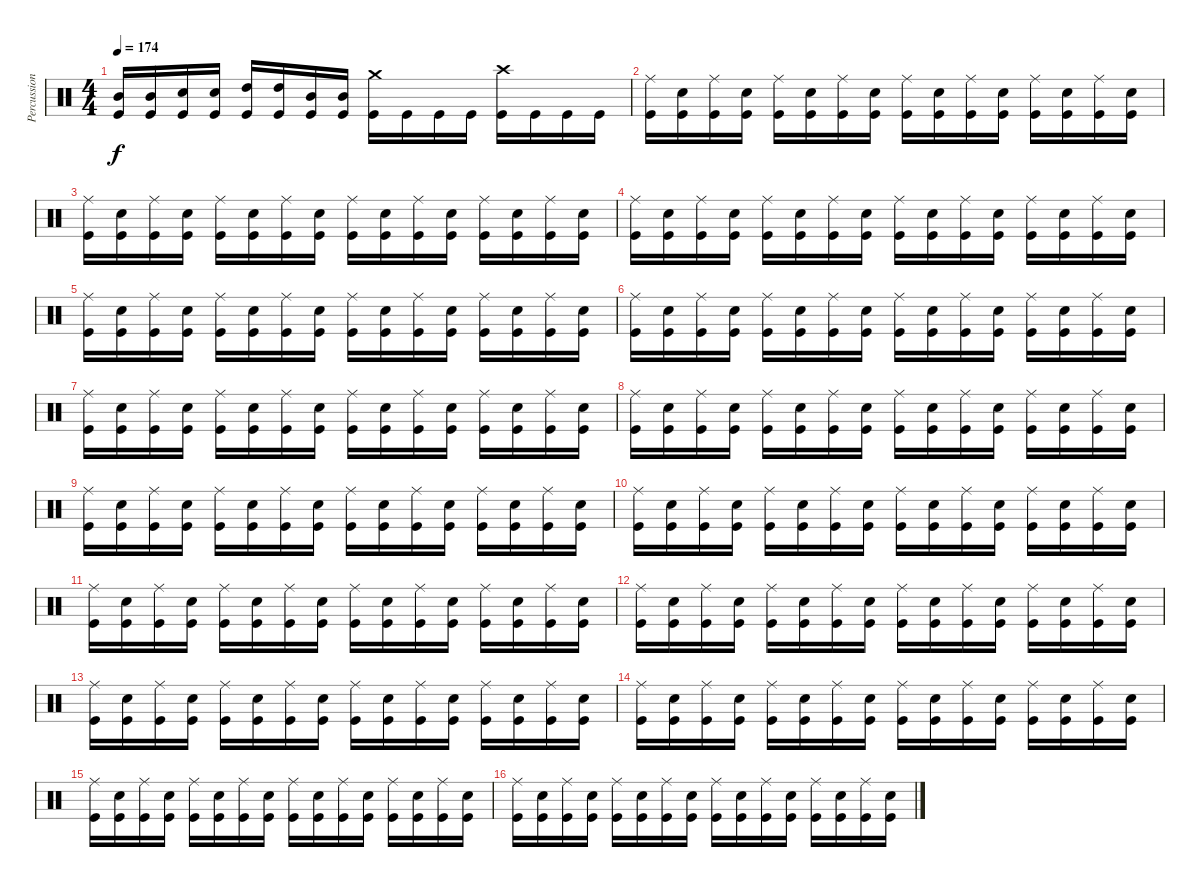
\track ("Percussion" "Percussion") {instrument percussion}
\staff {score}
\articulation defaults
\ts (4 4)
\tempo 174
\clef neutral
\ks c
("Mid Tom (hit)" "Kick (hit)").16{dy f} ("Mid Tom (hit)" "Kick (hit)").16 ("Electric Snare (hit)" "Kick (hit)").16 ("Electric Snare (hit)" "Kick (hit)").16 ("High Tom (hit)" "Kick (hit)").16 ("High Tom (hit)" "Kick (hit)").16 ("Mid Tom (hit)" "Kick (hit)").16 ("Mid Tom (hit)" "Kick (hit)").16 ("Crash medium (hit)" "Kick (hit)").16 "Kick (hit)".16 "Kick (hit)".16 "Kick (hit)".16 ("Crash high (hit)" "Kick (hit)").16 "Kick (hit)".16 "Kick (hit)".16 "Kick (hit)".16 |
\section ("" "")
("Ride (middle)" "Kick (hit)").16 ("Electric Snare (hit)" "Kick (hit)").16 ("Ride (middle)" "Kick (hit)").16 ("Electric Snare (hit)" "Kick (hit)").16 ("Ride (middle)" "Kick (hit)").16 ("Electric Snare (hit)" "Kick (hit)").16 ("Ride (middle)" "Kick (hit)").16 ("Electric Snare (hit)" "Kick (hit)").16 ("Ride (middle)" "Kick (hit)").16 ("Electric Snare (hit)" "Kick (hit)").16 ("Ride (middle)" "Kick (hit)").16 ("Electric Snare (hit)" "Kick (hit)").16 ("Ride (middle)" "Kick (hit)").16 ("Electric Snare (hit)" "Kick (hit)").16 ("Ride (middle)" "Kick (hit)").16 ("Electric Snare (hit)" "Kick (hit)").16 |
("Ride (middle)" "Kick (hit)").16 ("Electric Snare (hit)" "Kick (hit)").16 ("Ride (middle)" "Kick (hit)").16 ("Electric Snare (hit)" "Kick (hit)").16 ("Ride (middle)" "Kick (hit)").16 ("Electric Snare (hit)" "Kick (hit)").16 ("Ride (middle)" "Kick (hit)").16 ("Electric Snare (hit)" "Kick (hit)").16 ("Ride (middle)" "Kick (hit)").16 ("Electric Snare (hit)" "Kick (hit)").16 ("Ride (middle)" "Kick (hit)").16 ("Electric Snare (hit)" "Kick (hit)").16 ("Ride (middle)" "Kick (hit)").16 ("Electric Snare (hit)" "Kick (hit)").16 ("Ride (middle)" "Kick (hit)").16 ("Electric Snare (hit)" "Kick (hit)").16 |
("Ride (middle)" "Kick (hit)").16 ("Electric Snare (hit)" "Kick (hit)").16 ("Ride (middle)" "Kick (hit)").16 ("Electric Snare (hit)" "Kick (hit)").16 ("Ride (middle)" "Kick (hit)").16 ("Electric Snare (hit)" "Kick (hit)").16 ("Ride (middle)" "Kick (hit)").16 ("Electric Snare (hit)" "Kick (hit)").16 ("Ride (middle)" "Kick (hit)").16 ("Electric Snare (hit)" "Kick (hit)").16 ("Ride (middle)" "Kick (hit)").16 ("Electric Snare (hit)" "Kick (hit)").16 ("Ride (middle)" "Kick (hit)").16 ("Electric Snare (hit)" "Kick (hit)").16 ("Ride (middle)" "Kick (hit)").16 ("Electric Snare (hit)" "Kick (hit)").16 |
("Ride (middle)" "Kick (hit)").16 ("Electric Snare (hit)" "Kick (hit)").16 ("Ride (middle)" "Kick (hit)").16 ("Electric Snare (hit)" "Kick (hit)").16 ("Ride (middle)" "Kick (hit)").16 ("Electric Snare (hit)" "Kick (hit)").16 ("Ride (middle)" "Kick (hit)").16 ("Electric Snare (hit)" "Kick (hit)").16 ("Ride (middle)" "Kick (hit)").16 ("Electric Snare (hit)" "Kick (hit)").16 ("Ride (middle)" "Kick (hit)").16 ("Electric Snare (hit)" "Kick (hit)").16 ("Ride (middle)" "Kick (hit)").16 ("Electric Snare (hit)" "Kick (hit)").16 ("Ride (middle)" "Kick (hit)").16 ("Electric Snare (hit)" "Kick (hit)").16 |
("Ride (middle)" "Kick (hit)").16 ("Electric Snare (hit)" "Kick (hit)").16 ("Ride (middle)" "Kick (hit)").16 ("Electric Snare (hit)" "Kick (hit)").16 ("Ride (middle)" "Kick (hit)").16 ("Electric Snare (hit)" "Kick (hit)").16 ("Ride (middle)" "Kick (hit)").16 ("Electric Snare (hit)" "Kick (hit)").16 ("Ride (middle)" "Kick (hit)").16 ("Electric Snare (hit)" "Kick (hit)").16 ("Ride (middle)" "Kick (hit)").16 ("Electric Snare (hit)" "Kick (hit)").16 ("Ride (middle)" "Kick (hit)").16 ("Electric Snare (hit)" "Kick (hit)").16 ("Ride (middle)" "Kick (hit)").16 ("Electric Snare (hit)" "Kick (hit)").16 |
("Ride (middle)" "Kick (hit)").16 ("Electric Snare (hit)" "Kick (hit)").16 ("Ride (middle)" "Kick (hit)").16 ("Electric Snare (hit)" "Kick (hit)").16 ("Ride (middle)" "Kick (hit)").16 ("Electric Snare (hit)" "Kick (hit)").16 ("Ride (middle)" "Kick (hit)").16 ("Electric Snare (hit)" "Kick (hit)").16 ("Ride (middle)" "Kick (hit)").16 ("Electric Snare (hit)" "Kick (hit)").16 ("Ride (middle)" "Kick (hit)").16 ("Electric Snare (hit)" "Kick (hit)").16 ("Ride (middle)" "Kick (hit)").16 ("Electric Snare (hit)" "Kick (hit)").16 ("Ride (middle)" "Kick (hit)").16 ("Electric Snare (hit)" "Kick (hit)").16 |
("Ride (middle)" "Kick (hit)").16 ("Electric Snare (hit)" "Kick (hit)").16 ("Ride (middle)" "Kick (hit)").16 ("Electric Snare (hit)" "Kick (hit)").16 ("Ride (middle)" "Kick (hit)").16 ("Electric Snare (hit)" "Kick (hit)").16 ("Ride (middle)" "Kick (hit)").16 ("Electric Snare (hit)" "Kick (hit)").16 ("Ride (middle)" "Kick (hit)").16 ("Electric Snare (hit)" "Kick (hit)").16 ("Ride (middle)" "Kick (hit)").16 ("Electric Snare (hit)" "Kick (hit)").16 ("Ride (middle)" "Kick (hit)").16 ("Electric Snare (hit)" "Kick (hit)").16 ("Ride (middle)" "Kick (hit)").16 ("Electric Snare (hit)" "Kick (hit)").16 |
("Ride (middle)" "Kick (hit)").16 ("Electric Snare (hit)" "Kick (hit)").16 ("Ride (middle)" "Kick (hit)").16 ("Electric Snare (hit)" "Kick (hit)").16 ("Ride (middle)" "Kick (hit)").16 ("Electric Snare (hit)" "Kick (hit)").16 ("Ride (middle)" "Kick (hit)").16 ("Electric Snare (hit)" "Kick (hit)").16 ("Ride (middle)" "Kick (hit)").16 ("Electric Snare (hit)" "Kick (hit)").16 ("Ride (middle)" "Kick (hit)").16 ("Electric Snare (hit)" "Kick (hit)").16 ("Ride (middle)" "Kick (hit)").16 ("Electric Snare (hit)" "Kick (hit)").16 ("Ride (middle)" "Kick (hit)").16 ("Electric Snare (hit)" "Kick (hit)").16 |
("Ride (middle)" "Kick (hit)").16 ("Electric Snare (hit)" "Kick (hit)").16 ("Ride (middle)" "Kick (hit)").16 ("Electric Snare (hit)" "Kick (hit)").16 ("Ride (middle)" "Kick (hit)").16 ("Electric Snare (hit)" "Kick (hit)").16 ("Ride (middle)" "Kick (hit)").16 ("Electric Snare (hit)" "Kick (hit)").16 ("Ride (middle)" "Kick (hit)").16 ("Electric Snare (hit)" "Kick (hit)").16 ("Ride (middle)" "Kick (hit)").16 ("Electric Snare (hit)" "Kick (hit)").16 ("Ride (middle)" "Kick (hit)").16 ("Electric Snare (hit)" "Kick (hit)").16 ("Ride (middle)" "Kick (hit)").16 ("Electric Snare (hit)" "Kick (hit)").16 |
("Ride (middle)" "Kick (hit)").16 ("Electric Snare (hit)" "Kick (hit)").16 ("Ride (middle)" "Kick (hit)").16 ("Electric Snare (hit)" "Kick (hit)").16 ("Ride (middle)" "Kick (hit)").16 ("Electric Snare (hit)" "Kick (hit)").16 ("Ride (middle)" "Kick (hit)").16 ("Electric Snare (hit)" "Kick (hit)").16 ("Ride (middle)" "Kick (hit)").16 ("Electric Snare (hit)" "Kick (hit)").16 ("Ride (middle)" "Kick (hit)").16 ("Electric Snare (hit)" "Kick (hit)").16 ("Ride (middle)" "Kick (hit)").16 ("Electric Snare (hit)" "Kick (hit)").16 ("Ride (middle)" "Kick (hit)").16 ("Electric Snare (hit)" "Kick (hit)").16 |
("Ride (middle)" "Kick (hit)").16 ("Electric Snare (hit)" "Kick (hit)").16 ("Ride (middle)" "Kick (hit)").16 ("Electric Snare (hit)" "Kick (hit)").16 ("Ride (middle)" "Kick (hit)").16 ("Electric Snare (hit)" "Kick (hit)").16 ("Ride (middle)" "Kick (hit)").16 ("Electric Snare (hit)" "Kick (hit)").16 ("Ride (middle)" "Kick (hit)").16 ("Electric Snare (hit)" "Kick (hit)").16 ("Ride (middle)" "Kick (hit)").16 ("Electric Snare (hit)" "Kick (hit)").16 ("Ride (middle)" "Kick (hit)").16 ("Electric Snare (hit)" "Kick (hit)").16 ("Ride (middle)" "Kick (hit)").16 ("Electric Snare (hit)" "Kick (hit)").16 |
("Ride (middle)" "Kick (hit)").16 ("Electric Snare (hit)" "Kick (hit)").16 ("Ride (middle)" "Kick (hit)").16 ("Electric Snare (hit)" "Kick (hit)").16 ("Ride (middle)" "Kick (hit)").16 ("Electric Snare (hit)" "Kick (hit)").16 ("Ride (middle)" "Kick (hit)").16 ("Electric Snare (hit)" "Kick (hit)").16 ("Ride (middle)" "Kick (hit)").16 ("Electric Snare (hit)" "Kick (hit)").16 ("Ride (middle)" "Kick (hit)").16 ("Electric Snare (hit)" "Kick (hit)").16 ("Ride (middle)" "Kick (hit)").16 ("Electric Snare (hit)" "Kick (hit)").16 ("Ride (middle)" "Kick (hit)").16 ("Electric Snare (hit)" "Kick (hit)").16 |
("Ride (middle)" "Kick (hit)").16 ("Electric Snare (hit)" "Kick (hit)").16 ("Ride (middle)" "Kick (hit)").16 ("Electric Snare (hit)" "Kick (hit)").16 ("Ride (middle)" "Kick (hit)").16 ("Electric Snare (hit)" "Kick (hit)").16 ("Ride (middle)" "Kick (hit)").16 ("Electric Snare (hit)" "Kick (hit)").16 ("Ride (middle)" "Kick (hit)").16 ("Electric Snare (hit)" "Kick (hit)").16 ("Ride (middle)" "Kick (hit)").16 ("Electric Snare (hit)" "Kick (hit)").16 ("Ride (middle)" "Kick (hit)").16 ("Electric Snare (hit)" "Kick (hit)").16 ("Ride (middle)" "Kick (hit)").16 ("Electric Snare (hit)" "Kick (hit)").16 |
("Ride (middle)" "Kick (hit)").16 ("Electric Snare (hit)" "Kick (hit)").16 ("Ride (middle)" "Kick (hit)").16 ("Electric Snare (hit)" "Kick (hit)").16 ("Ride (middle)" "Kick (hit)").16 ("Electric Snare (hit)" "Kick (hit)").16 ("Ride (middle)" "Kick (hit)").16 ("Electric Snare (hit)" "Kick (hit)").16 ("Ride (middle)" "Kick (hit)").16 ("Electric Snare (hit)" "Kick (hit)").16 ("Ride (middle)" "Kick (hit)").16 ("Electric Snare (hit)" "Kick (hit)").16 ("Ride (middle)" "Kick (hit)").16 ("Electric Snare (hit)" "Kick (hit)").16 ("Ride (middle)" "Kick (hit)").16 ("Electric Snare (hit)" "Kick (hit)").16 |
("Ride (middle)" "Kick (hit)").16 ("Electric Snare (hit)" "Kick (hit)").16 ("Ride (middle)" "Kick (hit)").16 ("Electric Snare (hit)" "Kick (hit)").16 ("Ride (middle)" "Kick (hit)").16 ("Electric Snare (hit)" "Kick (hit)").16 ("Ride (middle)" "Kick (hit)").16 ("Electric Snare (hit)" "Kick (hit)").16 ("Ride (middle)" "Kick (hit)").16 ("Electric Snare (hit)" "Kick (hit)").16 ("Ride (middle)" "Kick (hit)").16 ("Electric Snare (hit)" "Kick (hit)").16 ("Ride (middle)" "Kick (hit)").16 ("Electric Snare (hit)" "Kick (hit)").16 ("Ride (middle)" "Kick (hit)").16 ("Electric Snare (hit)" "Kick (hit)").16
